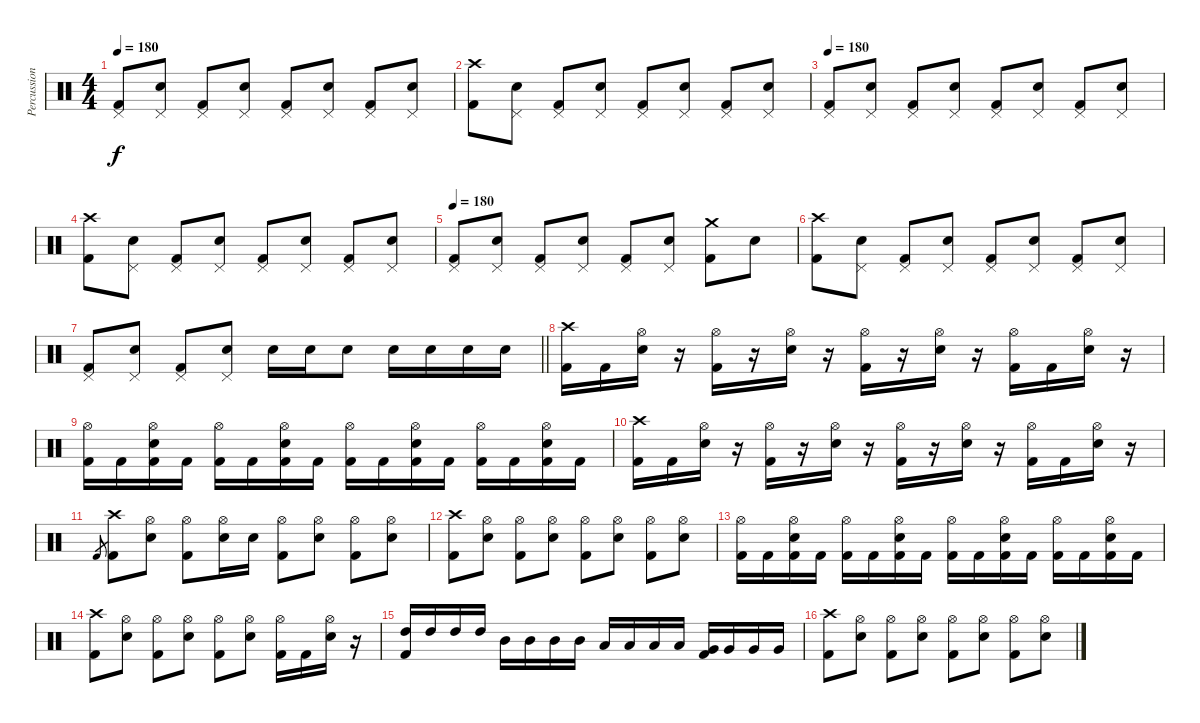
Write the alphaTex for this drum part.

\track ("Percussion" "Percussion") {instrument percussion}
\staff {score}
\articulation defaults
\ts (4 4)
\tempo 180
\clef neutral
\ks c
("Pedal Hi-Hat (hit)" "Kick (hit) 2").8{dy f} ("Pedal Hi-Hat (hit)" "Snare (hit) 2").8 ("Pedal Hi-Hat (hit)" "Kick (hit) 2").8 ("Pedal Hi-Hat (hit)" "Snare (hit) 2").8 ("Pedal Hi-Hat (hit)" "Kick (hit) 2").8 ("Pedal Hi-Hat (hit)" "Snare (hit) 2").8 ("Pedal Hi-Hat (hit)" "Kick (hit) 2").8 ("Pedal Hi-Hat (hit)" "Snare (hit) 2").8 |
("Crash high (hit)" "Kick (hit) 2").8 ("Pedal Hi-Hat (hit)" "Snare (hit) 2").8 ("Pedal Hi-Hat (hit)" "Kick (hit) 2").8 ("Pedal Hi-Hat (hit)" "Snare (hit) 2").8 ("Pedal Hi-Hat (hit)" "Kick (hit) 2").8 ("Pedal Hi-Hat (hit)" "Snare (hit) 2").8 ("Pedal Hi-Hat (hit)" "Kick (hit) 2").8 ("Pedal Hi-Hat (hit)" "Snare (hit) 2").8 |
\tempo 180
("Pedal Hi-Hat (hit)" "Kick (hit) 2").8 ("Pedal Hi-Hat (hit)" "Snare (hit) 2").8 ("Pedal Hi-Hat (hit)" "Kick (hit) 2").8 ("Pedal Hi-Hat (hit)" "Snare (hit) 2").8 ("Pedal Hi-Hat (hit)" "Kick (hit) 2").8 ("Pedal Hi-Hat (hit)" "Snare (hit) 2").8 ("Pedal Hi-Hat (hit)" "Kick (hit) 2").8 ("Pedal Hi-Hat (hit)" "Snare (hit) 2").8 |
("Crash high (hit)" "Kick (hit) 2").8 ("Pedal Hi-Hat (hit)" "Snare (hit) 2").8 ("Pedal Hi-Hat (hit)" "Kick (hit) 2").8 ("Pedal Hi-Hat (hit)" "Snare (hit) 2").8 ("Pedal Hi-Hat (hit)" "Kick (hit) 2").8 ("Pedal Hi-Hat (hit)" "Snare (hit) 2").8 ("Pedal Hi-Hat (hit)" "Kick (hit) 2").8 ("Pedal Hi-Hat (hit)" "Snare (hit) 2").8 |
\tempo 180
("Pedal Hi-Hat (hit)" "Kick (hit) 2").8 ("Pedal Hi-Hat (hit)" "Snare (hit) 2").8 ("Pedal Hi-Hat (hit)" "Kick (hit) 2").8 ("Pedal Hi-Hat (hit)" "Snare (hit) 2").8 ("Pedal Hi-Hat (hit)" "Kick (hit) 2").8 ("Pedal Hi-Hat (hit)" "Snare (hit) 2").8 ("Crash medium (hit)" "Kick (hit) 2").8 "Snare (hit) 2".8 |
("Crash high (hit)" "Kick (hit) 2").8 ("Pedal Hi-Hat (hit)" "Snare (hit) 2").8 ("Pedal Hi-Hat (hit)" "Kick (hit) 2").8 ("Pedal Hi-Hat (hit)" "Snare (hit) 2").8 ("Pedal Hi-Hat (hit)" "Kick (hit) 2").8 ("Pedal Hi-Hat (hit)" "Snare (hit) 2").8 ("Pedal Hi-Hat (hit)" "Kick (hit) 2").8 ("Pedal Hi-Hat (hit)" "Snare (hit) 2").8 |
\barLineRight lightlight
("Pedal Hi-Hat (hit)" "Kick (hit) 2").8 ("Pedal Hi-Hat (hit)" "Snare (hit) 2").8 ("Pedal Hi-Hat (hit)" "Kick (hit) 2").8 ("Pedal Hi-Hat (hit)" "Snare (hit) 2").8 "Snare (hit) 2".16 "Snare (hit) 2".16 "Snare (hit) 2".8 "Snare (hit) 2".16 "Snare (hit) 2".16 "Snare (hit) 2".16 "Snare (hit) 2".16 |
\section ("" "")
("Crash high (hit)" "Kick (hit) 2").16 "Kick (hit) 2".16 ("Hi-Hat (open)" "Snare (hit) 2").16 r.16 ("Hi-Hat (open)" "Kick (hit) 2").16 r.16 ("Hi-Hat (open)" "Snare (hit) 2").16 r.16 ("Hi-Hat (open)" "Kick (hit) 2").16 r.16 ("Hi-Hat (open)" "Snare (hit) 2").16 r.16 ("Hi-Hat (open)" "Kick (hit) 2").16 "Kick (hit) 2".16 ("Hi-Hat (open)" "Snare (hit) 2").16 r.16 |
("Hi-Hat (open)" "Kick (hit) 2").16 "Kick (hit) 2".16 ("Hi-Hat (open)" "Snare (hit) 2" "Kick (hit) 2").16 "Kick (hit) 2".16 ("Hi-Hat (open)" "Kick (hit) 2").16 "Kick (hit) 2".16 ("Hi-Hat (open)" "Snare (hit) 2" "Kick (hit) 2").16 "Kick (hit) 2".16 ("Hi-Hat (open)" "Kick (hit) 2").16 "Kick (hit) 2".16 ("Hi-Hat (open)" "Snare (hit) 2" "Kick (hit) 2").16 "Kick (hit) 2".16 ("Hi-Hat (open)" "Kick (hit) 2").16 "Kick (hit) 2".16 ("Hi-Hat (open)" "Snare (hit) 2" "Kick (hit) 2").16 "Kick (hit) 2".16 |
("Crash high (hit)" "Kick (hit) 2").16 "Kick (hit) 2".16 ("Hi-Hat (open)" "Snare (hit) 2").16 r.16 ("Hi-Hat (open)" "Kick (hit) 2").16 r.16 ("Hi-Hat (open)" "Snare (hit) 2").16 r.16 ("Hi-Hat (open)" "Kick (hit) 2").16 r.16 ("Hi-Hat (open)" "Snare (hit) 2").16 r.16 ("Hi-Hat (open)" "Kick (hit) 2").16 "Kick (hit) 2".16 ("Hi-Hat (open)" "Snare (hit) 2").16 r.16 |
"Kick (hit) 2".8{gr} ("Crash high (hit)" "Kick (hit) 2").8 ("Hi-Hat (open)" "Snare (hit) 2").8 ("Hi-Hat (open)" "Kick (hit) 2").8 ("Hi-Hat (open)" "Snare (hit) 2").16 "Snare (hit) 2".16 ("Hi-Hat (open)" "Kick (hit) 2").8 ("Hi-Hat (open)" "Snare (hit) 2").8 ("Hi-Hat (open)" "Kick (hit) 2").8 ("Hi-Hat (open)" "Snare (hit) 2").8 |
("Crash high (hit)" "Kick (hit) 2").8 ("Hi-Hat (open)" "Snare (hit) 2").8 ("Hi-Hat (open)" "Kick (hit) 2").8 ("Hi-Hat (open)" "Snare (hit) 2").8 ("Hi-Hat (open)" "Kick (hit) 2").8 ("Hi-Hat (open)" "Snare (hit) 2").8 ("Hi-Hat (open)" "Kick (hit) 2").8 ("Hi-Hat (open)" "Snare (hit) 2").8 |
("Hi-Hat (open)" "Kick (hit) 2").16 "Kick (hit) 2".16 ("Hi-Hat (open)" "Snare (hit) 2" "Kick (hit) 2").16 "Kick (hit) 2".16 ("Hi-Hat (open)" "Kick (hit) 2").16 "Kick (hit) 2".16 ("Hi-Hat (open)" "Snare (hit) 2" "Kick (hit) 2").16 "Kick (hit) 2".16 ("Hi-Hat (open)" "Kick (hit) 2").16 "Kick (hit) 2".16 ("Hi-Hat (open)" "Snare (hit) 2" "Kick (hit) 2").16 "Kick (hit) 2".16 ("Hi-Hat (open)" "Kick (hit) 2").16 "Kick (hit) 2".16 ("Hi-Hat (open)" "Snare (hit) 2" "Kick (hit) 2").16 "Kick (hit) 2".16 |
("Crash high (hit)" "Kick (hit) 2").8 ("Hi-Hat (open)" "Snare (hit) 2").8 ("Hi-Hat (open)" "Kick (hit) 2").8 ("Hi-Hat (open)" "Snare (hit) 2").8 ("Hi-Hat (open)" "Kick (hit) 2").8 ("Hi-Hat (open)" "Snare (hit) 2").8 ("Hi-Hat (open)" "Kick (hit) 2").16 "Kick (hit) 2".16 ("Hi-Hat (open)" "Snare (hit) 2").16 r.16 |
("High Tom (hit)" "Kick (hit) 2").16 "High Tom (hit)".16 "High Tom (hit)".16 "High Tom (hit)".16 "Mid Tom (hit)".16 "Mid Tom (hit)".16 "Mid Tom (hit)".16 "Mid Tom (hit)".16 "Low Tom (hit)".16 "Low Tom (hit)".16 "Low Tom (hit)".16 "Low Tom (hit)".16 ("Very Low Tom (hit)" "Kick (hit) 2").16 "Very Low Tom (hit)".16 "Very Low Tom (hit)".16 "Very Low Tom (hit)".16 |
("Crash high (hit)" "Kick (hit) 2").8 ("Hi-Hat (open)" "Snare (hit) 2").8 ("Hi-Hat (open)" "Kick (hit) 2").8 ("Hi-Hat (open)" "Snare (hit) 2").8 ("Hi-Hat (open)" "Kick (hit) 2").8 ("Hi-Hat (open)" "Snare (hit) 2").8 ("Hi-Hat (open)" "Kick (hit) 2").8 ("Hi-Hat (open)" "Snare (hit) 2").8
